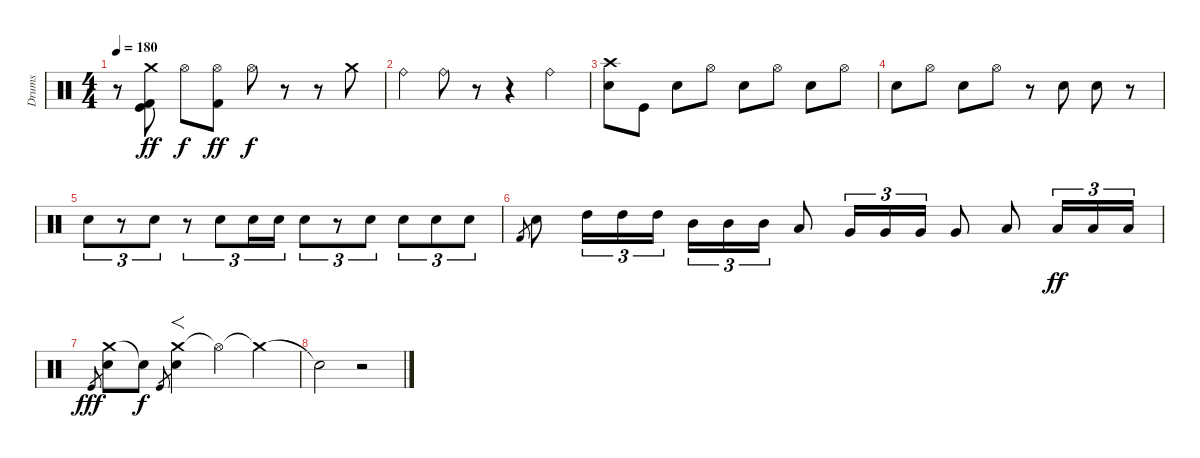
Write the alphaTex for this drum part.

\track ("Drums" "Drums") {instrument percussion}
\staff {score}
\articulation defaults
\ts (4 4)
\tempo 180
\clef neutral
\ks c
r.8{dy ff} ("Crash medium (hit)" "Kick (hit) 2" "Kick (hit)").8 "Hi-Hat (open)".8{dy f} ("Hi-Hat (open)" "Kick (hit) 2").8{dy ff} "Hi-Hat (open)".8{dy f} r.8 r.8 "Crash medium (hit)".8 |
"Ride (bell)".4 "Ride (bell)".8 r.8 r.4 "Ride (bell)".4 |
("Crash high (hit)" "Snare (hit) 2").8 "Kick (hit)".8 "Snare (hit) 2".8 "Hi-Hat (open)".8 "Snare (hit) 2".8 "Hi-Hat (open)".8 "Snare (hit) 2".8 "Hi-Hat (open)".8 |
"Snare (hit) 2".8 "Hi-Hat (open)".8 "Snare (hit) 2".8 "Hi-Hat (open)".8 r.8 "Snare (hit) 2".8 "Snare (hit) 2".8 r.8 |
"Snare (hit) 2".8{tu (3 2)} r.8{tu (3 2)} "Snare (hit) 2".8{tu (3 2)} r.8{tu (3 2)} "Snare (hit) 2".8{tu (3 2)} "Snare (hit) 2".16{tu (3 2)} "Snare (hit) 2".16{tu (3 2)} "Snare (hit) 2".8{tu (3 2)} r.8{tu (3 2)} "Snare (hit) 2".8{tu (3 2)} "Snare (hit) 2".8{tu (3 2)} "Snare (hit) 2".8{tu (3 2)} "Snare (hit) 2".8{tu (3 2)} |
"Kick (hit) 2".8{gr} "Electric Snare (hit)".8 "High Tom (hit)".16{tu (3 2)} "High Tom (hit)".16{tu (3 2)} "High Tom (hit)".16{tu (3 2)} "Mid Tom (hit)".16{tu (3 2)} "Mid Tom (hit)".16{tu (3 2)} "Mid Tom (hit)".16{tu (3 2)} "Low Tom (hit)".8 "Very Low Tom (hit)".16{tu (3 2)} "Very Low Tom (hit)".16{tu (3 2)} "Very Low Tom (hit)".16{tu (3 2)} "Very Low Tom (hit)".8 "Low Floor Tom (hit)".8 "Low Floor Tom (hit)".16{tu (3 2) dy ff} "Low Floor Tom (hit)".16{tu (3 2)} "Low Floor Tom (hit)".16{tu (3 2)} |
"Kick (hit)".8{gr dy fff} ("Crash medium (hit)" "Electric Snare (hit)").8 "Snare (hit)"{t}.8{dy f} "Kick (hit)".8{gr} ("Crash medium (hit)" "Snare (hit) 2").4{f} "Hi-Hat (open)"{t}.4 "Crash medium (hit)"{t}.4 |
"Snare (hit)"{t}.2 r.2
